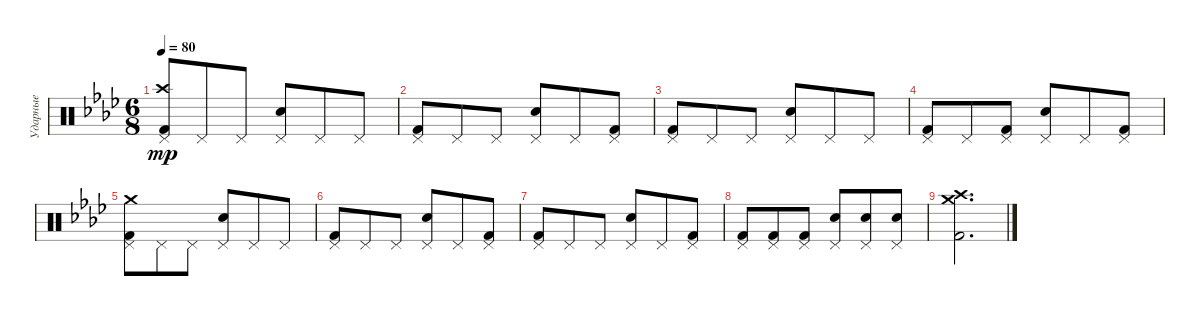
\track ("Ударные" "Ударные") {instrument percussion}
\staff {score}
\articulation defaults
\ts (6 8)
\tempo 80
\clef neutral
\ks fminor
("Pedal Hi-Hat (hit)" "Crash high (hit)" "Kick (hit) 2").8{dy mp} "Pedal Hi-Hat (hit)".8 "Pedal Hi-Hat (hit)".8 ("Pedal Hi-Hat (hit)" "Electric Snare (hit)").8 "Pedal Hi-Hat (hit)".8 "Pedal Hi-Hat (hit)".8 |
("Pedal Hi-Hat (hit)" "Kick (hit) 2").8 "Pedal Hi-Hat (hit)".8 "Pedal Hi-Hat (hit)".8 ("Pedal Hi-Hat (hit)" "Electric Snare (hit)").8 "Pedal Hi-Hat (hit)".8 ("Pedal Hi-Hat (hit)" "Kick (hit) 2").8 |
("Pedal Hi-Hat (hit)" "Kick (hit) 2").8 "Pedal Hi-Hat (hit)".8 "Pedal Hi-Hat (hit)".8 ("Pedal Hi-Hat (hit)" "Electric Snare (hit)").8 "Pedal Hi-Hat (hit)".8 "Pedal Hi-Hat (hit)".8 |
("Pedal Hi-Hat (hit)" "Kick (hit) 2").8 "Pedal Hi-Hat (hit)".8 ("Pedal Hi-Hat (hit)" "Kick (hit) 2").8 ("Pedal Hi-Hat (hit)" "Electric Snare (hit)").8 "Pedal Hi-Hat (hit)".8 ("Pedal Hi-Hat (hit)" "Kick (hit) 2").8 |
("Pedal Hi-Hat (hit)" "Crash medium (hit)" "Kick (hit) 2").8 "Pedal Hi-Hat (hit)".8 "Pedal Hi-Hat (hit)".8 ("Pedal Hi-Hat (hit)" "Electric Snare (hit)").8 "Pedal Hi-Hat (hit)".8 "Pedal Hi-Hat (hit)".8 |
("Pedal Hi-Hat (hit)" "Kick (hit) 2").8 "Pedal Hi-Hat (hit)".8 "Pedal Hi-Hat (hit)".8 ("Pedal Hi-Hat (hit)" "Electric Snare (hit)").8 "Pedal Hi-Hat (hit)".8 ("Pedal Hi-Hat (hit)" "Kick (hit) 2").8 |
("Pedal Hi-Hat (hit)" "Kick (hit) 2").8 "Pedal Hi-Hat (hit)".8 "Pedal Hi-Hat (hit)".8 ("Pedal Hi-Hat (hit)" "Electric Snare (hit)").8 "Pedal Hi-Hat (hit)".8 ("Pedal Hi-Hat (hit)" "Kick (hit) 2").8 |
("Pedal Hi-Hat (hit)" "Kick (hit) 2").8 ("Pedal Hi-Hat (hit)" "Kick (hit) 2").8 ("Pedal Hi-Hat (hit)" "Kick (hit) 2").8 ("Pedal Hi-Hat (hit)" "Electric Snare (hit)").8 ("Pedal Hi-Hat (hit)" "Electric Snare (hit)").8 ("Pedal Hi-Hat (hit)" "Electric Snare (hit)").8 |
("Crash medium (hit)" "Crash high (hit)" "Kick (hit) 2").2{d}
